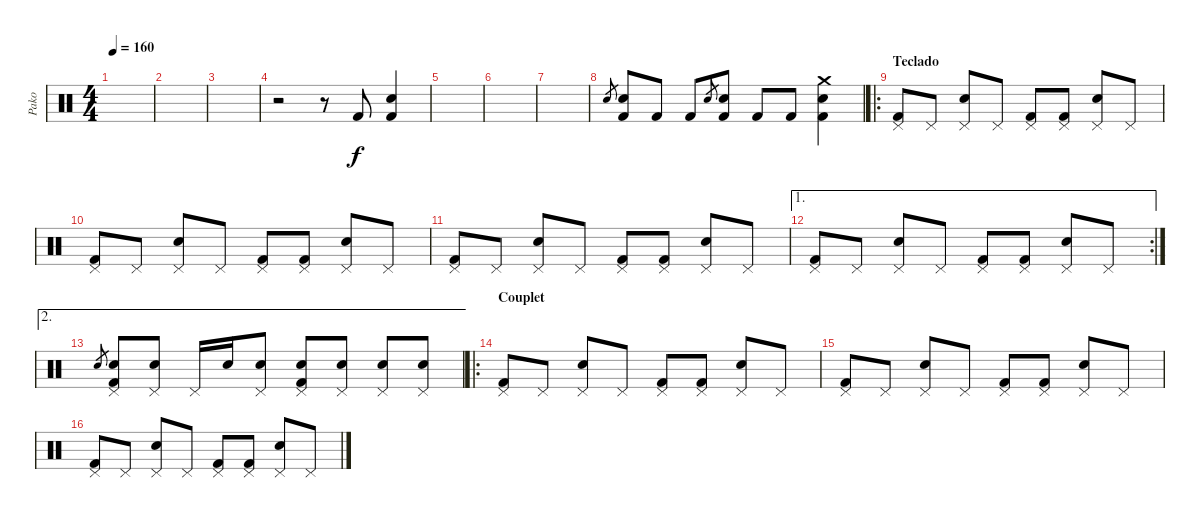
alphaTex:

\track ("Pako" "Pako") {instrument percussion}
\staff {score}
\articulation defaults
\ts (4 4)
\tempo 160
\clef neutral
\ks c
|
|
|
r.2 r.8 "Kick (hit) 2".8 ("Snare (hit) 2" "Kick (hit) 2").4 |
|
|
|
"Snare (hit) 2".8{gr} ("Snare (hit) 2" "Kick (hit) 2").8 "Kick (hit) 2".8 "Kick (hit) 2".8 "Snare (hit) 2".8{gr} ("Snare (hit) 2" "Kick (hit) 2").8 "Kick (hit) 2".8 "Kick (hit) 2".8 ("Crash medium (hit)" "Snare (hit) 2" "Kick (hit) 2").4 |
\ro
\section ("" "Teclado")
("Pedal Hi-Hat (hit)" "Kick (hit) 2").8 "Pedal Hi-Hat (hit)".8 ("Pedal Hi-Hat (hit)" "Snare (hit) 2").8 "Pedal Hi-Hat (hit)".8 ("Pedal Hi-Hat (hit)" "Kick (hit) 2").8 ("Pedal Hi-Hat (hit)" "Kick (hit) 2").8 ("Pedal Hi-Hat (hit)" "Snare (hit) 2").8 "Pedal Hi-Hat (hit)".8 |
("Pedal Hi-Hat (hit)" "Kick (hit) 2").8 "Pedal Hi-Hat (hit)".8 ("Pedal Hi-Hat (hit)" "Snare (hit) 2").8 "Pedal Hi-Hat (hit)".8 ("Pedal Hi-Hat (hit)" "Kick (hit) 2").8 ("Pedal Hi-Hat (hit)" "Kick (hit) 2").8 ("Pedal Hi-Hat (hit)" "Snare (hit) 2").8 "Pedal Hi-Hat (hit)".8 |
("Pedal Hi-Hat (hit)" "Kick (hit) 2").8 "Pedal Hi-Hat (hit)".8 ("Pedal Hi-Hat (hit)" "Snare (hit) 2").8 "Pedal Hi-Hat (hit)".8 ("Pedal Hi-Hat (hit)" "Kick (hit) 2").8 ("Pedal Hi-Hat (hit)" "Kick (hit) 2").8 ("Pedal Hi-Hat (hit)" "Snare (hit) 2").8 "Pedal Hi-Hat (hit)".8 |
\ae 1
\rc 2
("Pedal Hi-Hat (hit)" "Kick (hit) 2").8 "Pedal Hi-Hat (hit)".8 ("Pedal Hi-Hat (hit)" "Snare (hit) 2").8 "Pedal Hi-Hat (hit)".8 ("Pedal Hi-Hat (hit)" "Kick (hit) 2").8 ("Pedal Hi-Hat (hit)" "Kick (hit) 2").8 ("Pedal Hi-Hat (hit)" "Snare (hit) 2").8 "Pedal Hi-Hat (hit)".8 |
\ae 2 "Snare (hit) 2".8{gr}
("Pedal Hi-Hat (hit)" "Snare (hit) 2" "Kick (hit) 2").8 ("Pedal Hi-Hat (hit)" "Snare (hit) 2").8 "Pedal Hi-Hat (hit)".16 "Snare (hit) 2".16 ("Pedal Hi-Hat (hit)" "Snare (hit) 2").8 ("Pedal Hi-Hat (hit)" "Snare (hit) 2" "Kick (hit) 2").8 ("Pedal Hi-Hat (hit)" "Snare (hit) 2").8 ("Pedal Hi-Hat (hit)" "Snare (hit) 2").8 ("Pedal Hi-Hat (hit)" "Snare (hit) 2").8 |
\ro
\section ("" "Couplet")
("Pedal Hi-Hat (hit)" "Kick (hit) 2").8 "Pedal Hi-Hat (hit)".8 ("Pedal Hi-Hat (hit)" "Snare (hit) 2").8 "Pedal Hi-Hat (hit)".8 ("Pedal Hi-Hat (hit)" "Kick (hit) 2").8 ("Pedal Hi-Hat (hit)" "Kick (hit) 2").8 ("Pedal Hi-Hat (hit)" "Snare (hit) 2").8 "Pedal Hi-Hat (hit)".8 |
("Pedal Hi-Hat (hit)" "Kick (hit) 2").8 "Pedal Hi-Hat (hit)".8 ("Pedal Hi-Hat (hit)" "Snare (hit) 2").8 "Pedal Hi-Hat (hit)".8 ("Pedal Hi-Hat (hit)" "Kick (hit) 2").8 ("Pedal Hi-Hat (hit)" "Kick (hit) 2").8 ("Pedal Hi-Hat (hit)" "Snare (hit) 2").8 "Pedal Hi-Hat (hit)".8 |
("Pedal Hi-Hat (hit)" "Kick (hit) 2").8 "Pedal Hi-Hat (hit)".8 ("Pedal Hi-Hat (hit)" "Snare (hit) 2").8 "Pedal Hi-Hat (hit)".8 ("Pedal Hi-Hat (hit)" "Kick (hit) 2").8 ("Pedal Hi-Hat (hit)" "Kick (hit) 2").8 ("Pedal Hi-Hat (hit)" "Snare (hit) 2").8 "Pedal Hi-Hat (hit)".8
